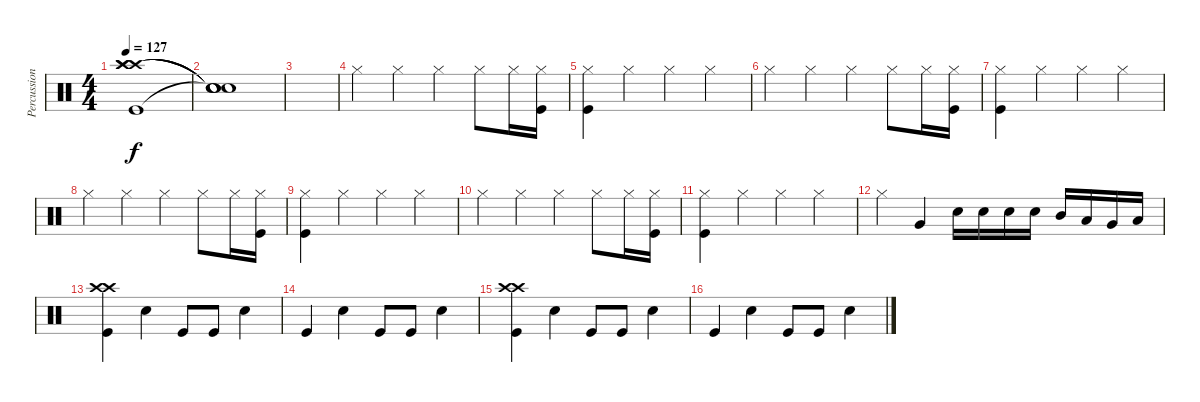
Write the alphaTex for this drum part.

\track ("Percussion" "Percussion") {instrument percussion}
\staff {score}
\articulation defaults
\ts (4 4)
\tempo 127
\clef neutral
\ks c
("Crash high (hit)" "Crash high (hit)" "Crash high (hit)" "Kick (hit)").1{dy f} |
("Snare (hit)"{t} "Snare (hit)"{t} "Snare (hit)"{t} "Snare (hit)"{t}).1 |
|
"Hi-Hat (closed)".4 "Hi-Hat (closed)".4 "Hi-Hat (closed)".4 "Hi-Hat (closed)".8 "Hi-Hat (closed)".16 ("Hi-Hat (closed)" "Kick (hit)").16 |
("Hi-Hat (closed)" "Kick (hit)").4 "Hi-Hat (closed)".4 "Hi-Hat (closed)".4 "Hi-Hat (closed)".4 |
"Hi-Hat (closed)".4 "Hi-Hat (closed)".4 "Hi-Hat (closed)".4 "Hi-Hat (closed)".8 "Hi-Hat (closed)".16 ("Hi-Hat (closed)" "Kick (hit)").16 |
("Hi-Hat (closed)" "Kick (hit)").4 "Hi-Hat (closed)".4 "Hi-Hat (closed)".4 "Hi-Hat (closed)".4 |
"Hi-Hat (closed)".4 "Hi-Hat (closed)".4 "Hi-Hat (closed)".4 "Hi-Hat (closed)".8 "Hi-Hat (closed)".16 ("Hi-Hat (closed)" "Kick (hit)").16 |
("Hi-Hat (closed)" "Kick (hit)").4 "Hi-Hat (closed)".4 "Hi-Hat (closed)".4 "Hi-Hat (closed)".4 |
"Hi-Hat (closed)".4 "Hi-Hat (closed)".4 "Hi-Hat (closed)".4 "Hi-Hat (closed)".8 "Hi-Hat (closed)".16 ("Hi-Hat (closed)" "Kick (hit)").16 |
("Hi-Hat (closed)" "Kick (hit)").4 "Hi-Hat (closed)".4 "Hi-Hat (closed)".4 "Hi-Hat (closed)".4 |
"Hi-Hat (closed)".4 "Very Low Tom (hit)".4 "Snare (hit) 2".16 "Snare (hit) 2".16 "Snare (hit) 2".16 "Snare (hit) 2".16 "Mid Tom (hit)".16 "Low Tom (hit)".16 "Very Low Tom (hit)".16 "Low Floor Tom (hit)".16 |
("Crash high (hit)" "Crash high (hit)" "Kick (hit)").4 "Snare (hit) 2".4 "Kick (hit)".8 "Kick (hit)".8 "Snare (hit) 2".4 |
"Kick (hit)".4 "Snare (hit) 2".4 "Kick (hit)".8 "Kick (hit)".8 "Snare (hit) 2".4 |
("Crash high (hit)" "Crash high (hit)" "Kick (hit)").4 "Snare (hit) 2".4 "Kick (hit)".8 "Kick (hit)".8 "Snare (hit) 2".4 |
"Kick (hit)".4 "Snare (hit) 2".4 "Kick (hit)".8 "Kick (hit)".8 "Snare (hit) 2".4
